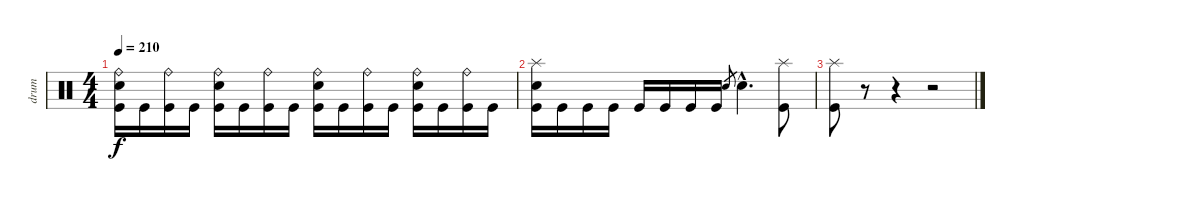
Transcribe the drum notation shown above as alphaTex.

\track ("drum" "drum") {instrument percussion}
\staff {score}
\articulation defaults
\ts (4 4)
\tempo 210
\clef neutral
\ks c
("Kick (hit)" "Electric Snare (hit)" "Ride (bell)").16{dy f} "Kick (hit)".16 ("Kick (hit)" "Ride (bell)").16 "Kick (hit)".16 ("Kick (hit)" "Electric Snare (hit)" "Ride (bell)").16 "Kick (hit)".16 ("Kick (hit)" "Ride (bell)").16 "Kick (hit)".16 ("Kick (hit)" "Electric Snare (hit)" "Ride (bell)").16 "Kick (hit)".16 ("Kick (hit)" "Ride (bell)").16 "Kick (hit)".16 ("Kick (hit)" "Electric Snare (hit)" "Ride (bell)").16 "Kick (hit)".16 ("Kick (hit)" "Ride (bell)").16 "Kick (hit)".16 |
("Kick (hit)" "Electric Snare (hit)" "Splash (hit)").16 "Kick (hit)".16 "Kick (hit)".16 "Kick (hit)".16 "Kick (hit)".16 "Kick (hit)".16 "Kick (hit)".16 "Kick (hit)".16 "Electric Snare (hit)".8{gr} "Electric Snare (hit)"{hac}.4{d} ("Kick (hit)" "Splash (hit)").8 |
("Kick (hit)" "Splash (hit)").8 r.8 r.4 r.2
